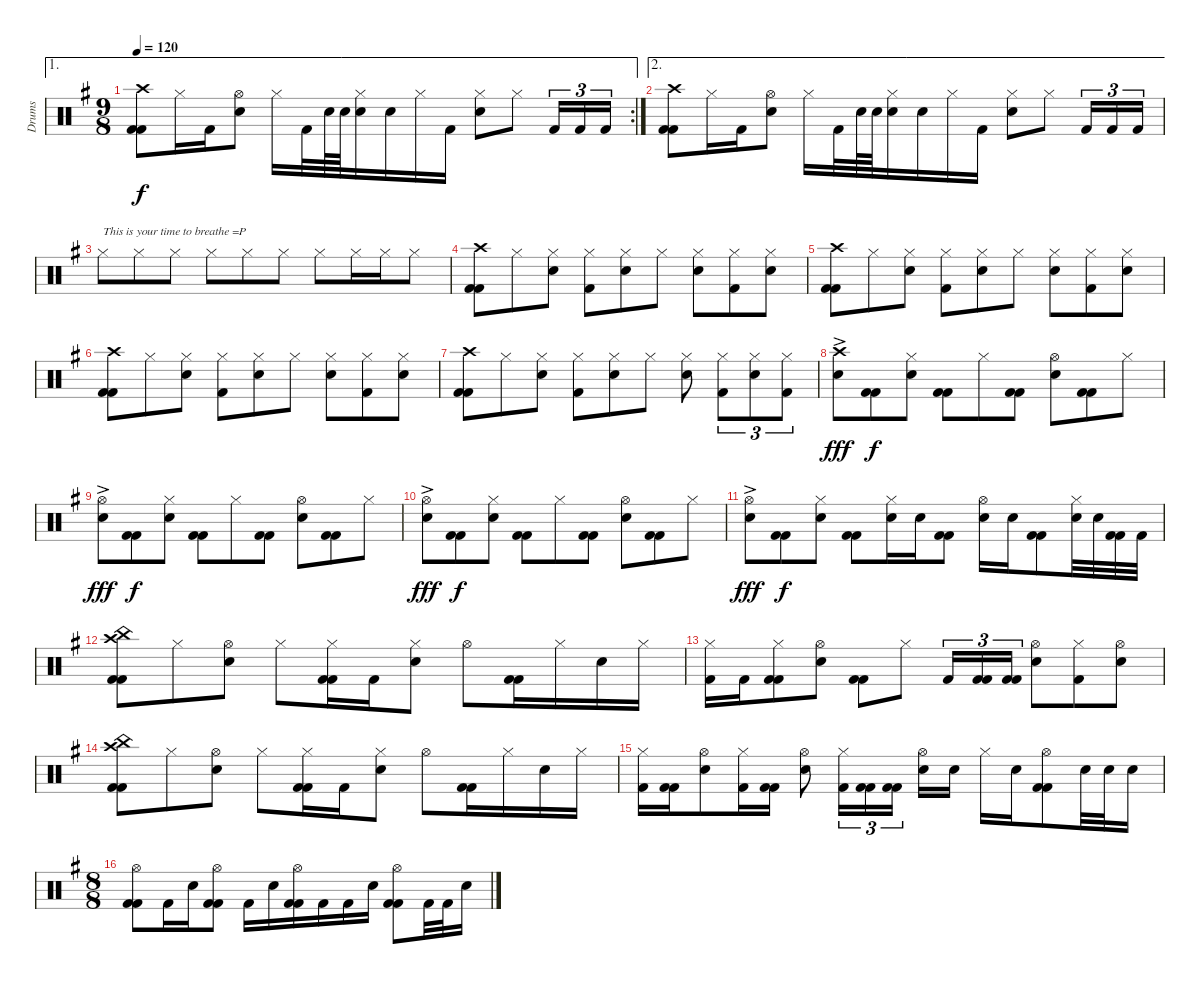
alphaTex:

\track ("Drums" "Drums") {instrument percussion}
\staff {score}
\articulation defaults
\ae 1
\rc 2
\ts (9 8)
\tempo 120
\clef neutral
\ks g
("Crash high (hit)" "Kick (hit) 2" "Kick (hit) 2").8{dy f} "Hi-Hat (closed)".16 "Kick (hit) 2".16 ("Hi-Hat (open)" "Snare (hit) 2").8 "Hi-Hat (closed)".16 "Kick (hit) 2".32 "Snare (hit) 2".64 "Snare (hit) 2".64 ("Hi-Hat (closed)" "Snare (hit) 2").16 "Snare (hit) 2".16 "Hi-Hat (closed)".16 "Kick (hit) 2".16 ("Hi-Hat (closed)" "Snare (hit) 2").8 "Hi-Hat (closed)".8 "Kick (hit) 2".16{tu (3 2)} "Kick (hit) 2".16{tu (3 2)} "Kick (hit) 2".16{tu (3 2)} |
\ae 2
("Crash high (hit)" "Kick (hit) 2" "Kick (hit) 2").8 "Hi-Hat (closed)".16 "Kick (hit) 2".16 ("Hi-Hat (open)" "Snare (hit) 2").8 "Hi-Hat (closed)".16 "Kick (hit) 2".32 "Snare (hit) 2".64 "Snare (hit) 2".64 ("Hi-Hat (closed)" "Snare (hit) 2").16 "Snare (hit) 2".16 "Hi-Hat (closed)".16 "Kick (hit) 2".16 ("Hi-Hat (closed)" "Snare (hit) 2").8 "Hi-Hat (closed)".8 "Kick (hit) 2".16{tu (3 2)} "Kick (hit) 2".16{tu (3 2)} "Kick (hit) 2".16{tu (3 2)} |
"Hi-Hat (closed)".8{txt "This is your time to breathe =P"} "Hi-Hat (closed)".8 "Hi-Hat (closed)".8 "Hi-Hat (closed)".8 "Hi-Hat (closed)".8 "Hi-Hat (closed)".8 "Hi-Hat (closed)".8 "Hi-Hat (closed)".16 "Hi-Hat (closed)".16 "Hi-Hat (closed)".8 |
("Crash high (hit)" "Kick (hit) 2" "Kick (hit) 2").8 "Hi-Hat (closed)".8 ("Hi-Hat (closed)" "Snare (hit) 2").8 ("Hi-Hat (closed)" "Kick (hit) 2").8 ("Hi-Hat (closed)" "Snare (hit) 2").8 "Hi-Hat (closed)".8 ("Hi-Hat (closed)" "Snare (hit) 2").8 ("Hi-Hat (closed)" "Kick (hit) 2").8 ("Hi-Hat (closed)" "Snare (hit) 2").8 |
("Crash high (hit)" "Kick (hit) 2" "Kick (hit) 2").8 "Hi-Hat (closed)".8 ("Hi-Hat (closed)" "Snare (hit) 2").8 ("Hi-Hat (closed)" "Kick (hit) 2").8 ("Hi-Hat (closed)" "Snare (hit) 2").8 "Hi-Hat (closed)".8 ("Hi-Hat (closed)" "Snare (hit) 2").8 ("Hi-Hat (closed)" "Kick (hit) 2").8 ("Hi-Hat (closed)" "Snare (hit) 2").8 |
("Crash high (hit)" "Kick (hit) 2" "Kick (hit) 2").8 "Hi-Hat (closed)".8 ("Hi-Hat (closed)" "Snare (hit) 2").8 ("Hi-Hat (closed)" "Kick (hit) 2").8 ("Hi-Hat (closed)" "Snare (hit) 2").8 "Hi-Hat (closed)".8 ("Hi-Hat (closed)" "Snare (hit) 2").8 ("Hi-Hat (closed)" "Kick (hit) 2").8 ("Hi-Hat (closed)" "Snare (hit) 2").8 |
("Crash high (hit)" "Kick (hit) 2" "Kick (hit) 2").8 "Hi-Hat (closed)".8 ("Hi-Hat (closed)" "Snare (hit) 2").8 ("Hi-Hat (closed)" "Kick (hit) 2").8 ("Hi-Hat (closed)" "Snare (hit) 2").8 "Hi-Hat (closed)".8 ("Hi-Hat (closed)" "Snare (hit) 2").8 ("Hi-Hat (closed)" "Kick (hit) 2").8{tu (3 2)} ("Hi-Hat (closed)" "Snare (hit) 2").8{tu (3 2)} ("Hi-Hat (closed)" "Kick (hit) 2").8{tu (3 2)} |
("Crash high (hit)" "Snare (hit) 2"{ac}).8{dy fff} ("Kick (hit) 2" "Kick (hit) 2").8{dy f} ("Hi-Hat (closed)" "Snare (hit) 2").8 ("Kick (hit) 2" "Kick (hit) 2").8 "Hi-Hat (closed)".8 ("Kick (hit) 2" "Kick (hit) 2").8 ("Hi-Hat (open)" "Snare (hit) 2").8 ("Kick (hit) 2" "Kick (hit) 2").8 "Hi-Hat (closed)".8 |
("Hi-Hat (open)" "Snare (hit) 2"{ac}).8{dy fff} ("Kick (hit) 2" "Kick (hit) 2").8{dy f} ("Hi-Hat (closed)" "Snare (hit) 2").8 ("Kick (hit) 2" "Kick (hit) 2").8 "Hi-Hat (closed)".8 ("Kick (hit) 2" "Kick (hit) 2").8 ("Hi-Hat (open)" "Snare (hit) 2").8 ("Kick (hit) 2" "Kick (hit) 2").8 "Hi-Hat (closed)".8 |
("Hi-Hat (open)" "Snare (hit) 2"{ac}).8{dy fff} ("Kick (hit) 2" "Kick (hit) 2").8{dy f} ("Hi-Hat (closed)" "Snare (hit) 2").8 ("Kick (hit) 2" "Kick (hit) 2").8 "Hi-Hat (closed)".8 ("Kick (hit) 2" "Kick (hit) 2").8 ("Hi-Hat (open)" "Snare (hit) 2").8 ("Kick (hit) 2" "Kick (hit) 2").8 "Hi-Hat (closed)".8 |
("Hi-Hat (open)" "Snare (hit) 2"{ac}).8{dy fff} ("Kick (hit) 2" "Kick (hit) 2").8{dy f} ("Hi-Hat (closed)" "Snare (hit) 2").8 ("Kick (hit) 2" "Kick (hit) 2").8 ("Hi-Hat (closed)" "Snare (hit) 2").16 "Snare (hit) 2".16 ("Kick (hit) 2" "Kick (hit) 2").8 ("Hi-Hat (open)" "Snare (hit) 2").16 "Snare (hit) 2".16 ("Kick (hit) 2" "Kick (hit) 2").8 ("Hi-Hat (closed)" "Snare (hit) 2").32 "Snare (hit) 2".32 ("Kick (hit) 2" "Kick (hit) 2").32 "Kick (hit) 2".32 |
("China (hit)" "Crash high (hit)" "Kick (hit) 2" "Kick (hit) 2").8 "Hi-Hat (closed)".8 ("Hi-Hat (open)" "Snare (hit) 2").8 "Hi-Hat (closed)".8 ("Hi-Hat (closed)" "Kick (hit) 2" "Kick (hit) 2").16 "Kick (hit) 2".16 ("Hi-Hat (closed)" "Snare (hit) 2").8 "Hi-Hat (open)".8 ("Kick (hit) 2" "Kick (hit) 2").16 "Hi-Hat (closed)".16 "Snare (hit) 2".16 "Hi-Hat (closed)".16 |
("Hi-Hat (closed)" "Kick (hit) 2").16 "Kick (hit) 2".16 ("Hi-Hat (closed)" "Kick (hit) 2" "Kick (hit) 2").8 ("Hi-Hat (open)" "Snare (hit) 2").8 ("Kick (hit) 2" "Kick (hit) 2").8 "Hi-Hat (closed)".8 "Kick (hit) 2".16{tu (3 2)} ("Kick (hit) 2" "Kick (hit) 2").16{tu (3 2)} ("Kick (hit) 2" "Kick (hit) 2").16{tu (3 2)} ("Hi-Hat (open)" "Snare (hit) 2").8 ("Hi-Hat (closed)" "Kick (hit) 2").8 ("Hi-Hat (open)" "Snare (hit) 2").8 |
("China (hit)" "Crash high (hit)" "Kick (hit) 2" "Kick (hit) 2").8 "Hi-Hat (closed)".8 ("Hi-Hat (open)" "Snare (hit) 2").8 "Hi-Hat (closed)".8 ("Hi-Hat (closed)" "Kick (hit) 2" "Kick (hit) 2").16 "Kick (hit) 2".16 ("Hi-Hat (closed)" "Snare (hit) 2").8 "Hi-Hat (open)".8 ("Kick (hit) 2" "Kick (hit) 2").16 "Hi-Hat (closed)".16 "Snare (hit) 2".16 "Hi-Hat (closed)".16 |
("Hi-Hat (closed)" "Kick (hit) 2").16 ("Kick (hit) 2" "Kick (hit) 2").16 ("Hi-Hat (open)" "Snare (hit) 2").8 ("Hi-Hat (closed)" "Kick (hit) 2").16 ("Kick (hit) 2" "Kick (hit) 2").16 ("Hi-Hat (open)" "Snare (hit) 2").8 ("Hi-Hat (closed)" "Kick (hit) 2").16{tu (3 2)} ("Kick (hit) 2" "Kick (hit) 2").16{tu (3 2)} ("Kick (hit) 2" "Kick (hit) 2").16{tu (3 2)} ("Hi-Hat (open)" "Snare (hit) 2").16 "Snare (hit) 2".16 "Hi-Hat (closed)".16 "Snare (hit) 2".16 ("Hi-Hat (open)" "Kick (hit) 2" "Kick (hit) 2").8 "Snare (hit) 2".32 "Snare (hit) 2".32 "Snare (hit) 2".16 |
\ts (8 8)
("Hi-Hat (open)" "Kick (hit) 2" "Kick (hit) 2").8 "Kick (hit) 2".16 "Snare (hit) 2".16 ("Hi-Hat (open)" "Kick (hit) 2" "Kick (hit) 2").8 "Kick (hit) 2".16 "Snare (hit) 2".16 ("Hi-Hat (open)" "Kick (hit) 2" "Kick (hit) 2").16 "Kick (hit) 2".16 "Kick (hit) 2".16 "Snare (hit) 2".16 ("Hi-Hat (open)" "Kick (hit) 2" "Kick (hit) 2").8 "Kick (hit) 2".32 "Kick (hit) 2".32 "Snare (hit) 2".16
